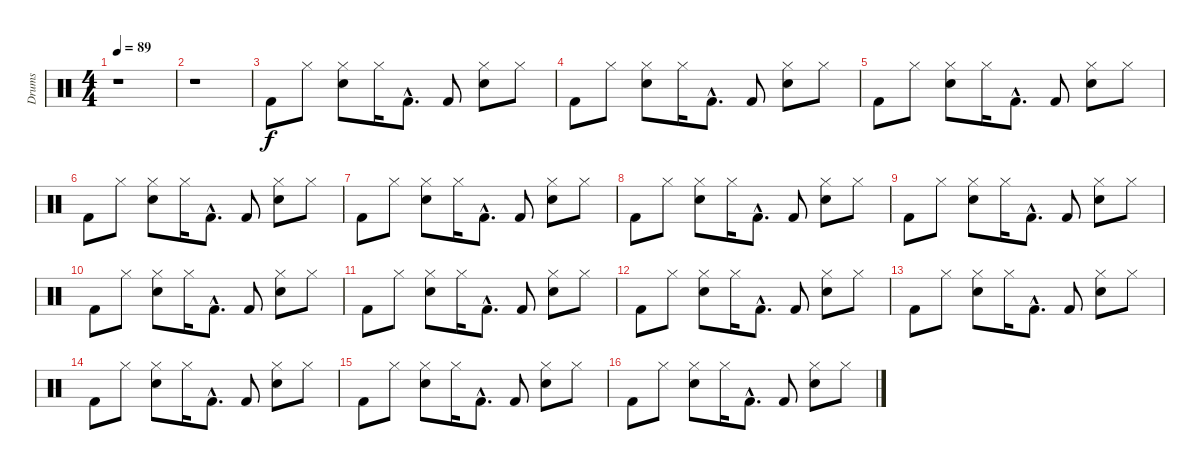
\track ("Drums" "Drums") {instrument percussion}
\staff {score}
\articulation defaults
\ts (4 4)
\tempo 89
\clef neutral
\ks c
r.1{dy f} |
r.1 |
"Kick (hit) 2".8 "Hi-Hat (closed)".8 ("Hi-Hat (closed)" "Electric Snare (hit)").8 "Hi-Hat (closed)".16 "Kick (hit) 2"{hac}.8{d} "Kick (hit) 2".8 ("Hi-Hat (closed)" "Electric Snare (hit)").8 "Hi-Hat (closed)".8 |
"Kick (hit) 2".8 "Hi-Hat (closed)".8 ("Hi-Hat (closed)" "Electric Snare (hit)").8 "Hi-Hat (closed)".16 "Kick (hit) 2"{hac}.8{d} "Kick (hit) 2".8 ("Hi-Hat (closed)" "Electric Snare (hit)").8 "Hi-Hat (closed)".8 |
"Kick (hit) 2".8 "Hi-Hat (closed)".8 ("Hi-Hat (closed)" "Electric Snare (hit)").8 "Hi-Hat (closed)".16 "Kick (hit) 2"{hac}.8{d} "Kick (hit) 2".8 ("Hi-Hat (closed)" "Electric Snare (hit)").8 "Hi-Hat (closed)".8 |
"Kick (hit) 2".8 "Hi-Hat (closed)".8 ("Hi-Hat (closed)" "Electric Snare (hit)").8 "Hi-Hat (closed)".16 "Kick (hit) 2"{hac}.8{d} "Kick (hit) 2".8 ("Hi-Hat (closed)" "Electric Snare (hit)").8 "Hi-Hat (closed)".8 |
"Kick (hit) 2".8 "Hi-Hat (closed)".8 ("Hi-Hat (closed)" "Electric Snare (hit)").8 "Hi-Hat (closed)".16 "Kick (hit) 2"{hac}.8{d} "Kick (hit) 2".8 ("Hi-Hat (closed)" "Electric Snare (hit)").8 "Hi-Hat (closed)".8 |
"Kick (hit) 2".8 "Hi-Hat (closed)".8 ("Hi-Hat (closed)" "Electric Snare (hit)").8 "Hi-Hat (closed)".16 "Kick (hit) 2"{hac}.8{d} "Kick (hit) 2".8 ("Hi-Hat (closed)" "Electric Snare (hit)").8 "Hi-Hat (closed)".8 |
"Kick (hit) 2".8 "Hi-Hat (closed)".8 ("Hi-Hat (closed)" "Electric Snare (hit)").8 "Hi-Hat (closed)".16 "Kick (hit) 2"{hac}.8{d} "Kick (hit) 2".8 ("Hi-Hat (closed)" "Electric Snare (hit)").8 "Hi-Hat (closed)".8 |
"Kick (hit) 2".8 "Hi-Hat (closed)".8 ("Hi-Hat (closed)" "Electric Snare (hit)").8 "Hi-Hat (closed)".16 "Kick (hit) 2"{hac}.8{d} "Kick (hit) 2".8 ("Hi-Hat (closed)" "Electric Snare (hit)").8 "Hi-Hat (closed)".8 |
"Kick (hit) 2".8 "Hi-Hat (closed)".8 ("Hi-Hat (closed)" "Electric Snare (hit)").8 "Hi-Hat (closed)".16 "Kick (hit) 2"{hac}.8{d} "Kick (hit) 2".8 ("Hi-Hat (closed)" "Electric Snare (hit)").8 "Hi-Hat (closed)".8 |
"Kick (hit) 2".8 "Hi-Hat (closed)".8 ("Hi-Hat (closed)" "Electric Snare (hit)").8 "Hi-Hat (closed)".16 "Kick (hit) 2"{hac}.8{d} "Kick (hit) 2".8 ("Hi-Hat (closed)" "Electric Snare (hit)").8 "Hi-Hat (closed)".8 |
"Kick (hit) 2".8 "Hi-Hat (closed)".8 ("Hi-Hat (closed)" "Electric Snare (hit)").8 "Hi-Hat (closed)".16 "Kick (hit) 2"{hac}.8{d} "Kick (hit) 2".8 ("Hi-Hat (closed)" "Electric Snare (hit)").8 "Hi-Hat (closed)".8 |
"Kick (hit) 2".8 "Hi-Hat (closed)".8 ("Hi-Hat (closed)" "Electric Snare (hit)").8 "Hi-Hat (closed)".16 "Kick (hit) 2"{hac}.8{d} "Kick (hit) 2".8 ("Hi-Hat (closed)" "Electric Snare (hit)").8 "Hi-Hat (closed)".8 |
"Kick (hit) 2".8 "Hi-Hat (closed)".8 ("Hi-Hat (closed)" "Electric Snare (hit)").8 "Hi-Hat (closed)".16 "Kick (hit) 2"{hac}.8{d} "Kick (hit) 2".8 ("Hi-Hat (closed)" "Electric Snare (hit)").8 "Hi-Hat (closed)".8 |
"Kick (hit) 2".8 "Hi-Hat (closed)".8 ("Hi-Hat (closed)" "Electric Snare (hit)").8 "Hi-Hat (closed)".16 "Kick (hit) 2"{hac}.8{d} "Kick (hit) 2".8 ("Hi-Hat (closed)" "Electric Snare (hit)").8 "Hi-Hat (closed)".8
